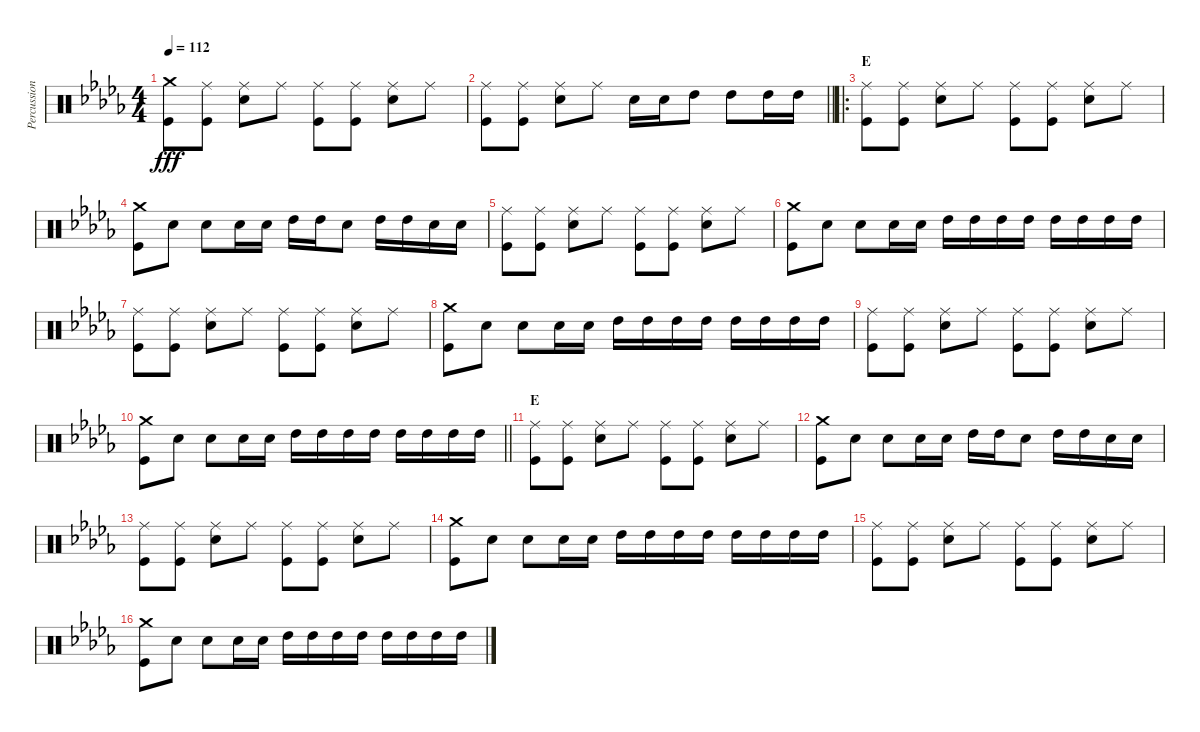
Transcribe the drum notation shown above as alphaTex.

\track ("Percussioni" "Percussion") {instrument percussion}
\staff {score}
\articulation defaults
\ts (4 4)
\tempo 112
\clef neutral
\ks db
("Crash medium (hit)" "Kick (hit)").8{dy fff} ("Ride (middle)" "Kick (hit)").8 ("Ride (middle)" "Snare (hit) 2").8 "Ride (middle)".8 ("Ride (middle)" "Kick (hit)").8 ("Ride (middle)" "Kick (hit)").8 ("Ride (middle)" "Snare (hit) 2").8 "Ride (middle)".8 |
\barLineRight lightlight
("Ride (middle)" "Kick (hit)").8 ("Ride (middle)" "Kick (hit)").8 ("Ride (middle)" "Snare (hit) 2").8 "Ride (middle)".8 "Snare (hit) 2".16 "Snare (hit) 2".16 "High Tom (hit)".8 "High Tom (hit)".8 "High Tom (hit)".16 "High Tom (hit)".16 |
\ro
\section ("" "E")
("Ride (middle)" "Kick (hit)").8 ("Ride (middle)" "Kick (hit)").8 ("Ride (middle)" "Snare (hit) 2").8 "Ride (middle)".8 ("Ride (middle)" "Kick (hit)").8 ("Ride (middle)" "Kick (hit)").8 ("Ride (middle)" "Snare (hit) 2").8 "Ride (middle)".8 |
("Crash medium (hit)" "Kick (hit)").8 "Snare (hit) 2".8 "Snare (hit) 2".8 "Snare (hit) 2".16 "Snare (hit) 2".16 "High Tom (hit)".16 "High Tom (hit)".16 "Snare (hit) 2".8 "High Tom (hit)".16 "High Tom (hit)".16 "Snare (hit) 2".16 "Snare (hit) 2".16 |
("Ride (middle)" "Kick (hit)").8 ("Ride (middle)" "Kick (hit)").8 ("Ride (middle)" "Snare (hit) 2").8 "Ride (middle)".8 ("Ride (middle)" "Kick (hit)").8 ("Ride (middle)" "Kick (hit)").8 ("Ride (middle)" "Snare (hit) 2").8 "Ride (middle)".8 |
("Crash medium (hit)" "Kick (hit)").8 "Snare (hit) 2".8 "Snare (hit) 2".8 "Snare (hit) 2".16 "Snare (hit) 2".16 "High Tom (hit)".16 "High Tom (hit)".16 "High Tom (hit)".16 "High Tom (hit)".16 "High Tom (hit)".16 "High Tom (hit)".16 "High Tom (hit)".16 "High Tom (hit)".16 |
("Ride (middle)" "Kick (hit)").8 ("Ride (middle)" "Kick (hit)").8 ("Ride (middle)" "Snare (hit) 2").8 "Ride (middle)".8 ("Ride (middle)" "Kick (hit)").8 ("Ride (middle)" "Kick (hit)").8 ("Ride (middle)" "Snare (hit) 2").8 "Ride (middle)".8 |
("Crash medium (hit)" "Kick (hit)").8 "Snare (hit) 2".8 "Snare (hit) 2".8 "Snare (hit) 2".16 "Snare (hit) 2".16 "High Tom (hit)".16 "High Tom (hit)".16 "High Tom (hit)".16 "High Tom (hit)".16 "High Tom (hit)".16 "High Tom (hit)".16 "High Tom (hit)".16 "High Tom (hit)".16 |
("Ride (middle)" "Kick (hit)").8 ("Ride (middle)" "Kick (hit)").8 ("Ride (middle)" "Snare (hit) 2").8 "Ride (middle)".8 ("Ride (middle)" "Kick (hit)").8 ("Ride (middle)" "Kick (hit)").8 ("Ride (middle)" "Snare (hit) 2").8 "Ride (middle)".8 |
\barLineRight lightlight
("Crash medium (hit)" "Kick (hit)").8 "Snare (hit) 2".8 "Snare (hit) 2".8 "Snare (hit) 2".16 "Snare (hit) 2".16 "High Tom (hit)".16 "High Tom (hit)".16 "High Tom (hit)".16 "High Tom (hit)".16 "High Tom (hit)".16 "High Tom (hit)".16 "High Tom (hit)".16 "High Tom (hit)".16 |
\section ("" "E")
("Ride (middle)" "Kick (hit)").8{volume 12} ("Ride (middle)" "Kick (hit)").8 ("Ride (middle)" "Snare (hit) 2").8 "Ride (middle)".8 ("Ride (middle)" "Kick (hit)").8 ("Ride (middle)" "Kick (hit)").8 ("Ride (middle)" "Snare (hit) 2").8 "Ride (middle)".8 |
("Crash medium (hit)" "Kick (hit)").8 "Snare (hit) 2".8 "Snare (hit) 2".8 "Snare (hit) 2".16 "Snare (hit) 2".16 "High Tom (hit)".16 "High Tom (hit)".16 "Snare (hit) 2".8 "High Tom (hit)".16 "High Tom (hit)".16 "Snare (hit) 2".16 "Snare (hit) 2".16 |
("Ride (middle)" "Kick (hit)").8 ("Ride (middle)" "Kick (hit)").8 ("Ride (middle)" "Snare (hit) 2").8 "Ride (middle)".8 ("Ride (middle)" "Kick (hit)").8 ("Ride (middle)" "Kick (hit)").8 ("Ride (middle)" "Snare (hit) 2").8 "Ride (middle)".8 |
("Crash medium (hit)" "Kick (hit)").8 "Snare (hit) 2".8 "Snare (hit) 2".8 "Snare (hit) 2".16 "Snare (hit) 2".16 "High Tom (hit)".16 "High Tom (hit)".16 "High Tom (hit)".16 "High Tom (hit)".16 "High Tom (hit)".16 "High Tom (hit)".16 "High Tom (hit)".16 "High Tom (hit)".16 |
("Ride (middle)" "Kick (hit)").8{volume 8} ("Ride (middle)" "Kick (hit)").8 ("Ride (middle)" "Snare (hit) 2").8 "Ride (middle)".8 ("Ride (middle)" "Kick (hit)").8 ("Ride (middle)" "Kick (hit)").8 ("Ride (middle)" "Snare (hit) 2").8 "Ride (middle)".8 |
("Crash medium (hit)" "Kick (hit)").8 "Snare (hit) 2".8 "Snare (hit) 2".8 "Snare (hit) 2".16 "Snare (hit) 2".16 "High Tom (hit)".16 "High Tom (hit)".16 "High Tom (hit)".16 "High Tom (hit)".16 "High Tom (hit)".16 "High Tom (hit)".16 "High Tom (hit)".16 "High Tom (hit)".16
